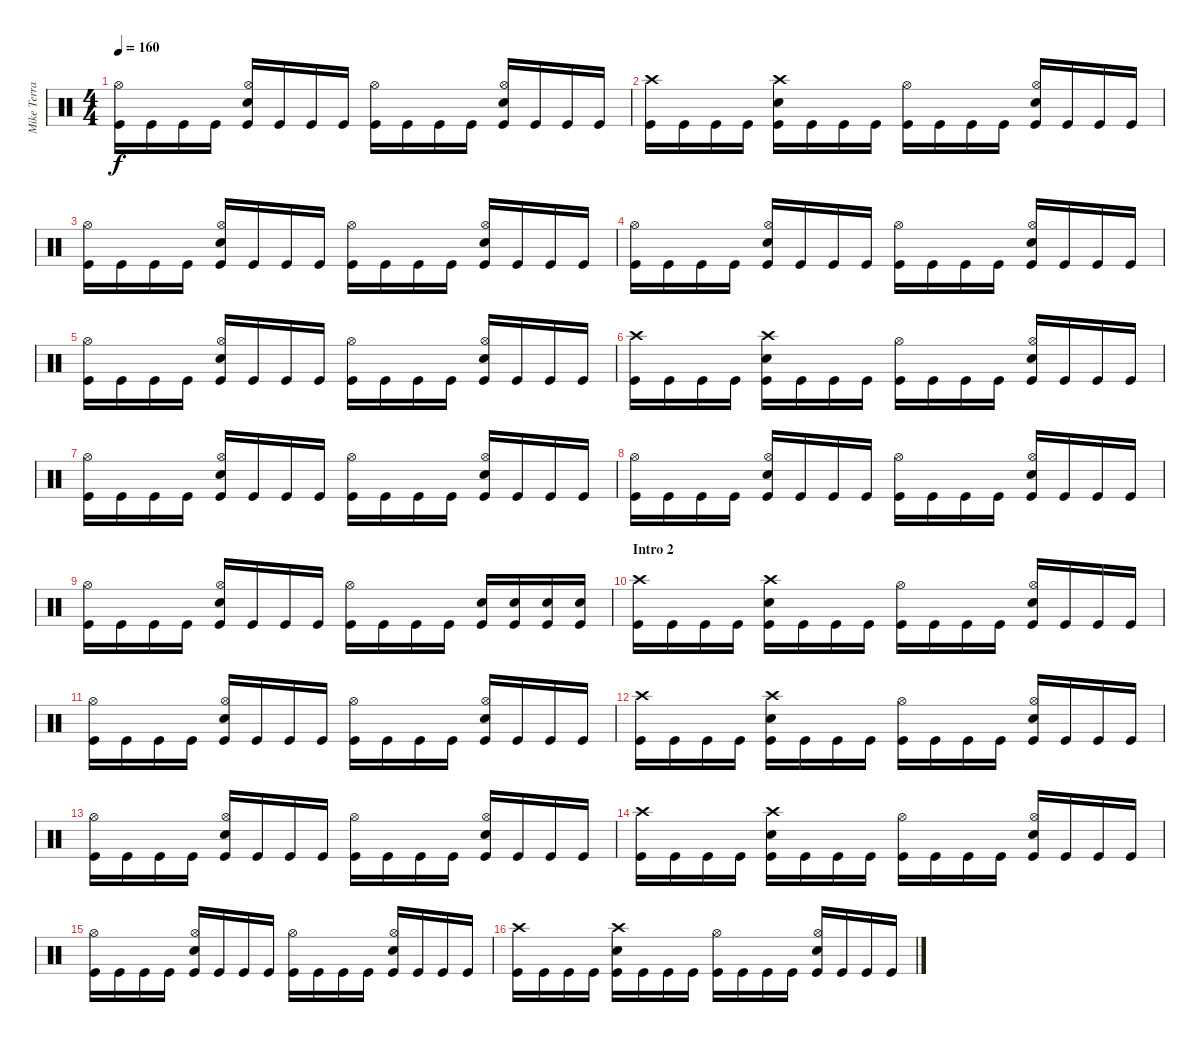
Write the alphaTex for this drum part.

\track ("Mike Terrana - Drums" "Mike Terra") {instrument percussion}
\staff {score}
\articulation defaults
\ts (4 4)
\tempo 160
\clef neutral
\ks c
("Kick (hit)" "Hi-Hat (open)").16{dy f} "Kick (hit)".16 "Kick (hit)".16 "Kick (hit)".16 ("Kick (hit)" "Electric Snare (hit)" "Hi-Hat (open)").16 "Kick (hit)".16 "Kick (hit)".16 "Kick (hit)".16 ("Kick (hit)" "Hi-Hat (open)").16 "Kick (hit)".16 "Kick (hit)".16 "Kick (hit)".16 ("Kick (hit)" "Electric Snare (hit)" "Hi-Hat (open)").16 "Kick (hit)".16 "Kick (hit)".16 "Kick (hit)".16 |
("Kick (hit)" "Crash high (hit)").16 "Kick (hit)".16 "Kick (hit)".16 "Kick (hit)".16 ("Kick (hit)" "Electric Snare (hit)" "Crash high (hit)").16 "Kick (hit)".16 "Kick (hit)".16 "Kick (hit)".16 ("Kick (hit)" "Hi-Hat (open)").16 "Kick (hit)".16 "Kick (hit)".16 "Kick (hit)".16 ("Kick (hit)" "Electric Snare (hit)" "Hi-Hat (open)").16 "Kick (hit)".16 "Kick (hit)".16 "Kick (hit)".16 |
("Kick (hit)" "Hi-Hat (open)").16 "Kick (hit)".16 "Kick (hit)".16 "Kick (hit)".16 ("Kick (hit)" "Electric Snare (hit)" "Hi-Hat (open)").16 "Kick (hit)".16 "Kick (hit)".16 "Kick (hit)".16 ("Kick (hit)" "Hi-Hat (open)").16 "Kick (hit)".16 "Kick (hit)".16 "Kick (hit)".16 ("Kick (hit)" "Electric Snare (hit)" "Hi-Hat (open)").16 "Kick (hit)".16 "Kick (hit)".16 "Kick (hit)".16 |
("Kick (hit)" "Hi-Hat (open)").16 "Kick (hit)".16 "Kick (hit)".16 "Kick (hit)".16 ("Kick (hit)" "Electric Snare (hit)" "Hi-Hat (open)").16 "Kick (hit)".16 "Kick (hit)".16 "Kick (hit)".16 ("Kick (hit)" "Hi-Hat (open)").16 "Kick (hit)".16 "Kick (hit)".16 "Kick (hit)".16 ("Kick (hit)" "Electric Snare (hit)" "Hi-Hat (open)").16 "Kick (hit)".16 "Kick (hit)".16 "Kick (hit)".16 |
("Kick (hit)" "Hi-Hat (open)").16 "Kick (hit)".16 "Kick (hit)".16 "Kick (hit)".16 ("Kick (hit)" "Electric Snare (hit)" "Hi-Hat (open)").16 "Kick (hit)".16 "Kick (hit)".16 "Kick (hit)".16 ("Kick (hit)" "Hi-Hat (open)").16 "Kick (hit)".16 "Kick (hit)".16 "Kick (hit)".16 ("Kick (hit)" "Electric Snare (hit)" "Hi-Hat (open)").16 "Kick (hit)".16 "Kick (hit)".16 "Kick (hit)".16 |
("Kick (hit)" "Crash high (hit)").16 "Kick (hit)".16 "Kick (hit)".16 "Kick (hit)".16 ("Kick (hit)" "Electric Snare (hit)" "Crash high (hit)").16 "Kick (hit)".16 "Kick (hit)".16 "Kick (hit)".16 ("Kick (hit)" "Hi-Hat (open)").16 "Kick (hit)".16 "Kick (hit)".16 "Kick (hit)".16 ("Kick (hit)" "Electric Snare (hit)" "Hi-Hat (open)").16 "Kick (hit)".16 "Kick (hit)".16 "Kick (hit)".16 |
("Kick (hit)" "Hi-Hat (open)").16 "Kick (hit)".16 "Kick (hit)".16 "Kick (hit)".16 ("Kick (hit)" "Electric Snare (hit)" "Hi-Hat (open)").16 "Kick (hit)".16 "Kick (hit)".16 "Kick (hit)".16 ("Kick (hit)" "Hi-Hat (open)").16 "Kick (hit)".16 "Kick (hit)".16 "Kick (hit)".16 ("Kick (hit)" "Electric Snare (hit)" "Hi-Hat (open)").16 "Kick (hit)".16 "Kick (hit)".16 "Kick (hit)".16 |
("Kick (hit)" "Hi-Hat (open)").16 "Kick (hit)".16 "Kick (hit)".16 "Kick (hit)".16 ("Kick (hit)" "Electric Snare (hit)" "Hi-Hat (open)").16 "Kick (hit)".16 "Kick (hit)".16 "Kick (hit)".16 ("Kick (hit)" "Hi-Hat (open)").16 "Kick (hit)".16 "Kick (hit)".16 "Kick (hit)".16 ("Kick (hit)" "Electric Snare (hit)" "Hi-Hat (open)").16 "Kick (hit)".16 "Kick (hit)".16 "Kick (hit)".16 |
("Kick (hit)" "Hi-Hat (open)").16 "Kick (hit)".16 "Kick (hit)".16 "Kick (hit)".16 ("Kick (hit)" "Electric Snare (hit)" "Hi-Hat (open)").16 "Kick (hit)".16 "Kick (hit)".16 "Kick (hit)".16 ("Kick (hit)" "Hi-Hat (open)").16 "Kick (hit)".16 "Kick (hit)".16 "Kick (hit)".16 ("Kick (hit)" "Electric Snare (hit)").16 ("Kick (hit)" "Electric Snare (hit)").16 ("Kick (hit)" "Electric Snare (hit)").16 ("Kick (hit)" "Electric Snare (hit)").16 |
\section ("" "Intro 2")
("Kick (hit)" "Crash high (hit)").16 "Kick (hit)".16 "Kick (hit)".16 "Kick (hit)".16 ("Kick (hit)" "Electric Snare (hit)" "Crash high (hit)").16 "Kick (hit)".16 "Kick (hit)".16 "Kick (hit)".16 ("Kick (hit)" "Hi-Hat (open)").16 "Kick (hit)".16 "Kick (hit)".16 "Kick (hit)".16 ("Kick (hit)" "Electric Snare (hit)" "Hi-Hat (open)").16 "Kick (hit)".16 "Kick (hit)".16 "Kick (hit)".16 |
("Kick (hit)" "Hi-Hat (open)").16 "Kick (hit)".16 "Kick (hit)".16 "Kick (hit)".16 ("Kick (hit)" "Electric Snare (hit)" "Hi-Hat (open)").16 "Kick (hit)".16 "Kick (hit)".16 "Kick (hit)".16 ("Kick (hit)" "Hi-Hat (open)").16 "Kick (hit)".16 "Kick (hit)".16 "Kick (hit)".16 ("Kick (hit)" "Electric Snare (hit)" "Hi-Hat (open)").16 "Kick (hit)".16 "Kick (hit)".16 "Kick (hit)".16 |
("Kick (hit)" "Crash high (hit)").16 "Kick (hit)".16 "Kick (hit)".16 "Kick (hit)".16 ("Kick (hit)" "Electric Snare (hit)" "Crash high (hit)").16 "Kick (hit)".16 "Kick (hit)".16 "Kick (hit)".16 ("Kick (hit)" "Hi-Hat (open)").16 "Kick (hit)".16 "Kick (hit)".16 "Kick (hit)".16 ("Kick (hit)" "Electric Snare (hit)" "Hi-Hat (open)").16 "Kick (hit)".16 "Kick (hit)".16 "Kick (hit)".16 |
("Kick (hit)" "Hi-Hat (open)").16 "Kick (hit)".16 "Kick (hit)".16 "Kick (hit)".16 ("Kick (hit)" "Electric Snare (hit)" "Hi-Hat (open)").16 "Kick (hit)".16 "Kick (hit)".16 "Kick (hit)".16 ("Kick (hit)" "Hi-Hat (open)").16 "Kick (hit)".16 "Kick (hit)".16 "Kick (hit)".16 ("Kick (hit)" "Electric Snare (hit)" "Hi-Hat (open)").16 "Kick (hit)".16 "Kick (hit)".16 "Kick (hit)".16 |
("Kick (hit)" "Crash high (hit)").16 "Kick (hit)".16 "Kick (hit)".16 "Kick (hit)".16 ("Kick (hit)" "Electric Snare (hit)" "Crash high (hit)").16 "Kick (hit)".16 "Kick (hit)".16 "Kick (hit)".16 ("Kick (hit)" "Hi-Hat (open)").16 "Kick (hit)".16 "Kick (hit)".16 "Kick (hit)".16 ("Kick (hit)" "Electric Snare (hit)" "Hi-Hat (open)").16 "Kick (hit)".16 "Kick (hit)".16 "Kick (hit)".16 |
("Kick (hit)" "Hi-Hat (open)").16 "Kick (hit)".16 "Kick (hit)".16 "Kick (hit)".16 ("Kick (hit)" "Electric Snare (hit)" "Hi-Hat (open)").16 "Kick (hit)".16 "Kick (hit)".16 "Kick (hit)".16 ("Kick (hit)" "Hi-Hat (open)").16 "Kick (hit)".16 "Kick (hit)".16 "Kick (hit)".16 ("Kick (hit)" "Electric Snare (hit)" "Hi-Hat (open)").16 "Kick (hit)".16 "Kick (hit)".16 "Kick (hit)".16 |
("Kick (hit)" "Crash high (hit)").16 "Kick (hit)".16 "Kick (hit)".16 "Kick (hit)".16 ("Kick (hit)" "Electric Snare (hit)" "Crash high (hit)").16 "Kick (hit)".16 "Kick (hit)".16 "Kick (hit)".16 ("Kick (hit)" "Hi-Hat (open)").16 "Kick (hit)".16 "Kick (hit)".16 "Kick (hit)".16 ("Kick (hit)" "Electric Snare (hit)" "Hi-Hat (open)").16 "Kick (hit)".16 "Kick (hit)".16 "Kick (hit)".16
